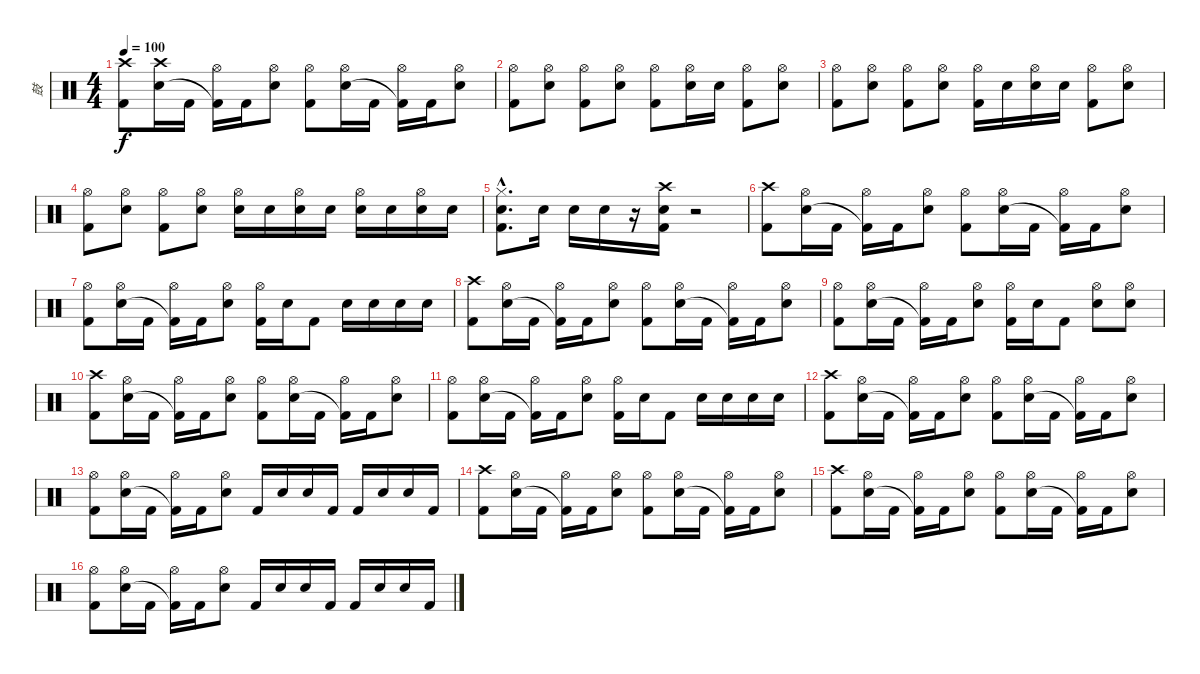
\track ("鼓" "鼓") {instrument percussion}
\staff {score}
\articulation defaults
\ts (4 4)
\tempo 100
\clef neutral
\ks c
("Crash high (hit)" "Kick (hit) 2").8{dy f} ("Crash high (hit)" "Snare (hit) 2").16 "Kick (hit) 2".16 ("Hi-Hat (open)" "Kick (hit) 2"{t}).16 "Kick (hit) 2".16 ("Hi-Hat (open)" "Snare (hit) 2").8 ("Hi-Hat (open)" "Kick (hit) 2").8 ("Hi-Hat (open)" "Snare (hit) 2").16 "Kick (hit) 2".16 ("Hi-Hat (open)" "Kick (hit) 2"{t}).16 "Kick (hit) 2".16 ("Hi-Hat (open)" "Snare (hit) 2").8 |
("Hi-Hat (open)" "Kick (hit) 2").8 ("Hi-Hat (open)" "Snare (hit) 2").8 ("Hi-Hat (open)" "Kick (hit) 2").8 ("Hi-Hat (open)" "Snare (hit) 2").8 ("Hi-Hat (open)" "Kick (hit) 2").8 ("Hi-Hat (open)" "Snare (hit) 2").16 "Snare (hit) 2".16 ("Hi-Hat (open)" "Kick (hit) 2").8 ("Hi-Hat (open)" "Snare (hit) 2").8 |
("Hi-Hat (open)" "Kick (hit) 2").8 ("Hi-Hat (open)" "Snare (hit) 2").8 ("Hi-Hat (open)" "Kick (hit) 2").8 ("Hi-Hat (open)" "Snare (hit) 2").8 ("Hi-Hat (open)" "Kick (hit) 2").16 "Snare (hit) 2".16 ("Hi-Hat (open)" "Snare (hit) 2").16 "Snare (hit) 2".16 ("Hi-Hat (open)" "Kick (hit) 2").8 ("Hi-Hat (open)" "Snare (hit) 2").8 |
("Hi-Hat (open)" "Kick (hit) 2").8 ("Hi-Hat (open)" "Snare (hit) 2").8 ("Hi-Hat (open)" "Kick (hit) 2").8 ("Hi-Hat (open)" "Snare (hit) 2").8 ("Hi-Hat (open)" "Snare (hit) 2").16 "Snare (hit) 2".16 ("Hi-Hat (open)" "Snare (hit) 2").16 "Snare (hit) 2".16 ("Hi-Hat (open)" "Snare (hit) 2").16 "Snare (hit) 2".16 ("Hi-Hat (open)" "Snare (hit) 2").16 "Snare (hit) 2".16 |
("Hi-Hat (closed)"{hac} "Kick (hit) 2"{hac} "Snare (hit) 2"{hac}).8{d} "Snare (hit) 2".16 "Snare (hit) 2".16 "Snare (hit) 2".16 r.16 ("Crash high (hit)" "Kick (hit) 2" "Snare (hit) 2").16 r.2 |
("Crash high (hit)" "Kick (hit) 2").8 ("Hi-Hat (open)" "Snare (hit) 2").16 "Kick (hit) 2".16 ("Hi-Hat (open)" "Kick (hit) 2"{t}).16 "Kick (hit) 2".16 ("Hi-Hat (open)" "Snare (hit) 2").8 ("Hi-Hat (open)" "Kick (hit) 2").8 ("Hi-Hat (open)" "Snare (hit) 2").16 "Kick (hit) 2".16 ("Hi-Hat (open)" "Kick (hit) 2"{t}).16 "Kick (hit) 2".16 ("Hi-Hat (open)" "Snare (hit) 2").8 |
("Hi-Hat (open)" "Kick (hit) 2").8 ("Hi-Hat (open)" "Snare (hit) 2").16 "Kick (hit) 2".16 ("Hi-Hat (open)" "Kick (hit) 2"{t}).16 "Kick (hit) 2".16 ("Hi-Hat (open)" "Snare (hit) 2").8 ("Hi-Hat (open)" "Kick (hit) 2").16 "Snare (hit) 2".16 "Kick (hit) 2".8 "Snare (hit) 2".16 "Snare (hit) 2".16 "Snare (hit) 2".16 "Snare (hit) 2".16 |
("Crash high (hit)" "Kick (hit) 2").8 ("Hi-Hat (open)" "Snare (hit) 2").16 "Kick (hit) 2".16 ("Hi-Hat (open)" "Kick (hit) 2"{t}).16 "Kick (hit) 2".16 ("Hi-Hat (open)" "Snare (hit) 2").8 ("Hi-Hat (open)" "Kick (hit) 2").8 ("Hi-Hat (open)" "Snare (hit) 2").16 "Kick (hit) 2".16 ("Hi-Hat (open)" "Kick (hit) 2"{t}).16 "Kick (hit) 2".16 ("Hi-Hat (open)" "Snare (hit) 2").8 |
("Hi-Hat (open)" "Kick (hit) 2").8 ("Hi-Hat (open)" "Snare (hit) 2").16 "Kick (hit) 2".16 ("Hi-Hat (open)" "Kick (hit) 2"{t}).16 "Kick (hit) 2".16 ("Hi-Hat (open)" "Snare (hit) 2").8 ("Hi-Hat (open)" "Kick (hit) 2").16 "Snare (hit) 2".16 "Kick (hit) 2".8 ("Hi-Hat (open)" "Snare (hit) 2").8 ("Hi-Hat (open)" "Snare (hit) 2").8 |
("Crash high (hit)" "Kick (hit) 2").8 ("Hi-Hat (open)" "Snare (hit) 2").16 "Kick (hit) 2".16 ("Hi-Hat (open)" "Kick (hit) 2"{t}).16 "Kick (hit) 2".16 ("Hi-Hat (open)" "Snare (hit) 2").8 ("Hi-Hat (open)" "Kick (hit) 2").8 ("Hi-Hat (open)" "Snare (hit) 2").16 "Kick (hit) 2".16 ("Hi-Hat (open)" "Kick (hit) 2"{t}).16 "Kick (hit) 2".16 ("Hi-Hat (open)" "Snare (hit) 2").8 |
("Hi-Hat (open)" "Kick (hit) 2").8 ("Hi-Hat (open)" "Snare (hit) 2").16 "Kick (hit) 2".16 ("Hi-Hat (open)" "Kick (hit) 2"{t}).16 "Kick (hit) 2".16 ("Hi-Hat (open)" "Snare (hit) 2").8 ("Hi-Hat (open)" "Kick (hit) 2").16 "Snare (hit) 2".16 "Kick (hit) 2".8 "Snare (hit) 2".16 "Snare (hit) 2".16 "Snare (hit) 2".16 "Snare (hit) 2".16 |
("Crash high (hit)" "Kick (hit) 2").8 ("Hi-Hat (open)" "Snare (hit) 2").16 "Kick (hit) 2".16 ("Hi-Hat (open)" "Kick (hit) 2"{t}).16 "Kick (hit) 2".16 ("Hi-Hat (open)" "Snare (hit) 2").8 ("Hi-Hat (open)" "Kick (hit) 2").8 ("Hi-Hat (open)" "Snare (hit) 2").16 "Kick (hit) 2".16 ("Hi-Hat (open)" "Kick (hit) 2"{t}).16 "Kick (hit) 2".16 ("Hi-Hat (open)" "Snare (hit) 2").8 |
("Hi-Hat (open)" "Kick (hit) 2").8 ("Hi-Hat (open)" "Snare (hit) 2").16 "Kick (hit) 2".16 ("Hi-Hat (open)" "Kick (hit) 2"{t}).16 "Kick (hit) 2".16 ("Hi-Hat (open)" "Snare (hit) 2").8 "Kick (hit) 2".16 "Snare (hit) 2".16 "Snare (hit) 2".16 "Kick (hit) 2".16 "Kick (hit) 2".16 "Snare (hit) 2".16 "Snare (hit) 2".16 "Kick (hit) 2".16 |
("Crash high (hit)" "Kick (hit) 2").8 ("Hi-Hat (open)" "Snare (hit) 2").16 "Kick (hit) 2".16 ("Hi-Hat (open)" "Kick (hit) 2"{t}).16 "Kick (hit) 2".16 ("Hi-Hat (open)" "Snare (hit) 2").8 ("Hi-Hat (open)" "Kick (hit) 2").8 ("Hi-Hat (open)" "Snare (hit) 2").16 "Kick (hit) 2".16 ("Hi-Hat (open)" "Kick (hit) 2"{t}).16 "Kick (hit) 2".16 ("Hi-Hat (open)" "Snare (hit) 2").8 |
("Crash high (hit)" "Kick (hit) 2").8 ("Hi-Hat (open)" "Snare (hit) 2").16 "Kick (hit) 2".16 ("Hi-Hat (open)" "Kick (hit) 2"{t}).16 "Kick (hit) 2".16 ("Hi-Hat (open)" "Snare (hit) 2").8 ("Hi-Hat (open)" "Kick (hit) 2").8 ("Hi-Hat (open)" "Snare (hit) 2").16 "Kick (hit) 2".16 ("Hi-Hat (open)" "Kick (hit) 2"{t}).16 "Kick (hit) 2".16 ("Hi-Hat (open)" "Snare (hit) 2").8 |
("Hi-Hat (open)" "Kick (hit) 2").8 ("Hi-Hat (open)" "Snare (hit) 2").16 "Kick (hit) 2".16 ("Hi-Hat (open)" "Kick (hit) 2"{t}).16 "Kick (hit) 2".16 ("Hi-Hat (open)" "Snare (hit) 2").8 "Kick (hit) 2".16 "Snare (hit) 2".16 "Snare (hit) 2".16 "Kick (hit) 2".16 "Kick (hit) 2".16 "Snare (hit) 2".16 "Snare (hit) 2".16 "Kick (hit) 2".16
